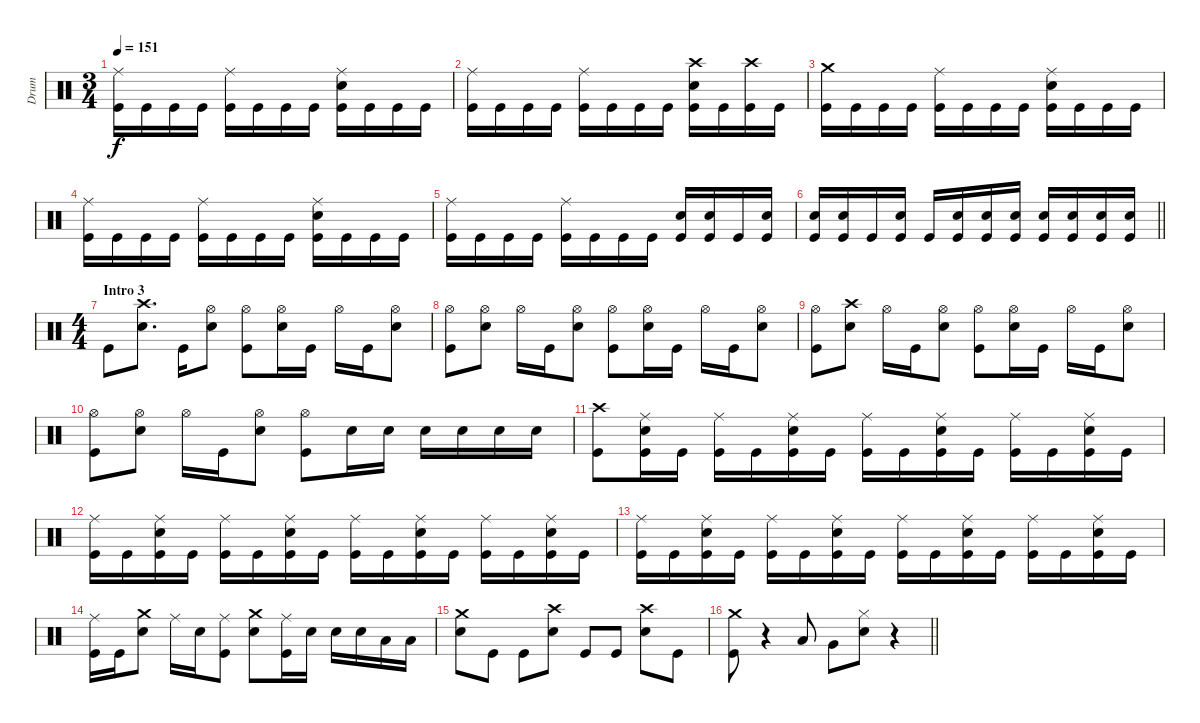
\track ("Drum" "Drum") {instrument percussion}
\staff {score}
\articulation defaults
\ts (3 4)
\tempo 151
\clef neutral
\ks c
("Ride (middle)" "Kick (hit)").16{dy f} "Kick (hit)".16 "Kick (hit)".16 "Kick (hit)".16 ("Ride (middle)" "Kick (hit)").16 "Kick (hit)".16 "Kick (hit)".16 "Kick (hit)".16 ("Ride (middle)" "Kick (hit)" "Snare (hit) 2").16 "Kick (hit)".16 "Kick (hit)".16 "Kick (hit)".16 |
("Ride (middle)" "Kick (hit)").16 "Kick (hit)".16 "Kick (hit)".16 "Kick (hit)".16 ("Ride (middle)" "Kick (hit)").16 "Kick (hit)".16 "Kick (hit)".16 "Kick (hit)".16 ("Crash high (hit)" "Kick (hit)" "Snare (hit) 2").16 "Kick (hit)".16 ("Crash high (hit)" "Kick (hit)").16 "Kick (hit)".16 |
("Crash medium (hit)" "Kick (hit)").16 "Kick (hit)".16 "Kick (hit)".16 "Kick (hit)".16 ("Ride (middle)" "Kick (hit)").16 "Kick (hit)".16 "Kick (hit)".16 "Kick (hit)".16 ("Ride (middle)" "Kick (hit)" "Snare (hit) 2").16 "Kick (hit)".16 "Kick (hit)".16 "Kick (hit)".16 |
("Ride (middle)" "Kick (hit)").16 "Kick (hit)".16 "Kick (hit)".16 "Kick (hit)".16 ("Ride (middle)" "Kick (hit)").16 "Kick (hit)".16 "Kick (hit)".16 "Kick (hit)".16 ("Ride (middle)" "Kick (hit)" "Snare (hit) 2").16 "Kick (hit)".16 "Kick (hit)".16 "Kick (hit)".16 |
("Ride (middle)" "Kick (hit)").16 "Kick (hit)".16 "Kick (hit)".16 "Kick (hit)".16 ("Ride (middle)" "Kick (hit)").16 "Kick (hit)".16 "Kick (hit)".16 "Kick (hit)".16 ("Kick (hit)" "Snare (hit) 2").16 ("Kick (hit)" "Snare (hit) 2").16 "Kick (hit)".16 ("Kick (hit)" "Snare (hit) 2").16 |
\barLineRight lightlight
("Snare (hit) 2" "Kick (hit)").16 ("Snare (hit) 2" "Kick (hit)").16 "Kick (hit)".16 ("Snare (hit) 2" "Kick (hit)").16 "Kick (hit)".16 ("Snare (hit) 2" "Kick (hit)").16 ("Snare (hit) 2" "Kick (hit)").16 ("Snare (hit) 2" "Kick (hit)").16 ("Snare (hit) 2" "Kick (hit)").16 ("Snare (hit) 2" "Kick (hit)").16 ("Snare (hit) 2" "Kick (hit)").16 ("Snare (hit) 2" "Kick (hit)").16 |
\ts (4 4)
\section ("" "Intro 3")
"Kick (hit)".8 ("Crash high (hit)" "Snare (hit) 2").8{d} "Kick (hit)".16 ("Hi-Hat (open)" "Snare (hit) 2").8 ("Hi-Hat (open)" "Kick (hit)").8 ("Hi-Hat (open)" "Snare (hit) 2").16 "Kick (hit)".16 "Hi-Hat (open)".16 "Kick (hit)".16 ("Hi-Hat (open)" "Snare (hit) 2").8 |
("Hi-Hat (open)" "Kick (hit)").8 ("Hi-Hat (open)" "Snare (hit) 2").8 "Hi-Hat (open)".16 "Kick (hit)".16 ("Hi-Hat (open)" "Snare (hit) 2").8 ("Hi-Hat (open)" "Kick (hit)").8 ("Hi-Hat (open)" "Snare (hit) 2").16 "Kick (hit)".16 "Hi-Hat (open)".16 "Kick (hit)".16 ("Hi-Hat (open)" "Snare (hit) 2").8 |
("Hi-Hat (open)" "Kick (hit)").8 ("Crash high (hit)" "Snare (hit) 2").8 "Hi-Hat (open)".16 "Kick (hit)".16 ("Hi-Hat (open)" "Snare (hit) 2").8 ("Hi-Hat (open)" "Kick (hit)").8 ("Hi-Hat (open)" "Snare (hit) 2").16 "Kick (hit)".16 "Hi-Hat (open)".16 "Kick (hit)".16 ("Hi-Hat (open)" "Snare (hit) 2").8 |
("Hi-Hat (open)" "Kick (hit)").8 ("Hi-Hat (open)" "Snare (hit) 2").8 "Hi-Hat (open)".16 "Kick (hit)".16 ("Hi-Hat (open)" "Snare (hit) 2").8 ("Hi-Hat (open)" "Kick (hit)").8 "Snare (hit) 2".16 "Snare (hit) 2".16 "Snare (hit) 2".16 "Snare (hit) 2".16 "Snare (hit) 2".16 "Snare (hit) 2".16 |
("Crash high (hit)" "Kick (hit)").8 ("Ride (middle)" "Kick (hit)" "Snare (hit) 2").16 "Kick (hit)".16 ("Ride (middle)" "Kick (hit)").16 "Kick (hit)".16 ("Ride (middle)" "Kick (hit)" "Snare (hit) 2").16 "Kick (hit)".16 ("Ride (middle)" "Kick (hit)").16 "Kick (hit)".16 ("Ride (middle)" "Kick (hit)" "Snare (hit) 2").16 "Kick (hit)".16 ("Ride (middle)" "Kick (hit)").16 "Kick (hit)".16 ("Ride (middle)" "Kick (hit)" "Snare (hit) 2").16 "Kick (hit)".16 |
("Ride (middle)" "Kick (hit)").16 "Kick (hit)".16 ("Ride (middle)" "Kick (hit)" "Snare (hit) 2").16 "Kick (hit)".16 ("Ride (middle)" "Kick (hit)").16 "Kick (hit)".16 ("Ride (middle)" "Kick (hit)" "Snare (hit) 2").16 "Kick (hit)".16 ("Ride (middle)" "Kick (hit)").16 "Kick (hit)".16 ("Ride (middle)" "Kick (hit)" "Snare (hit) 2").16 "Kick (hit)".16 ("Ride (middle)" "Kick (hit)").16 "Kick (hit)".16 ("Ride (middle)" "Kick (hit)" "Snare (hit) 2").16 "Kick (hit)".16 |
("Ride (middle)" "Kick (hit)").16 "Kick (hit)".16 ("Ride (middle)" "Kick (hit)" "Snare (hit) 2").16 "Kick (hit)".16 ("Ride (middle)" "Kick (hit)").16 "Kick (hit)".16 ("Ride (middle)" "Kick (hit)" "Snare (hit) 2").16 "Kick (hit)".16 ("Ride (middle)" "Kick (hit)").16 "Kick (hit)".16 ("Ride (middle)" "Kick (hit)" "Snare (hit) 2").16 "Kick (hit)".16 ("Ride (middle)" "Kick (hit)").16 "Kick (hit)".16 ("Ride (middle)" "Kick (hit)" "Snare (hit) 2").16 "Kick (hit)".16 |
("Ride (middle)" "Kick (hit)").16 "Kick (hit)".16 ("Crash medium (hit)" "Snare (hit) 2").8 "Ride (middle)".16 "Snare (hit) 2".16 ("Ride (middle)" "Kick (hit)").8 ("Crash medium (hit)" "Snare (hit) 2").8 ("Ride (middle)" "Kick (hit)").16 "Snare (hit) 2".16 "Snare (hit) 2".16 "Snare (hit) 2".16 "Low Tom (hit)".16 "Low Tom (hit)".16 |
("Crash medium (hit)" "Snare (hit) 2").8 "Kick (hit)".8 "Kick (hit)".8 ("Crash high (hit)" "Snare (hit) 2").8 "Kick (hit)".8 "Kick (hit)".8 ("Crash high (hit)" "Snare (hit) 2").8 "Kick (hit)".8 |
\barLineRight lightlight
("Crash medium (hit)" "Kick (hit)").8 r.4 "Low Tom (hit)".8 "Very Low Tom (hit)".8 ("Hi-Hat (closed)" "Snare (hit) 2").8 r.4
